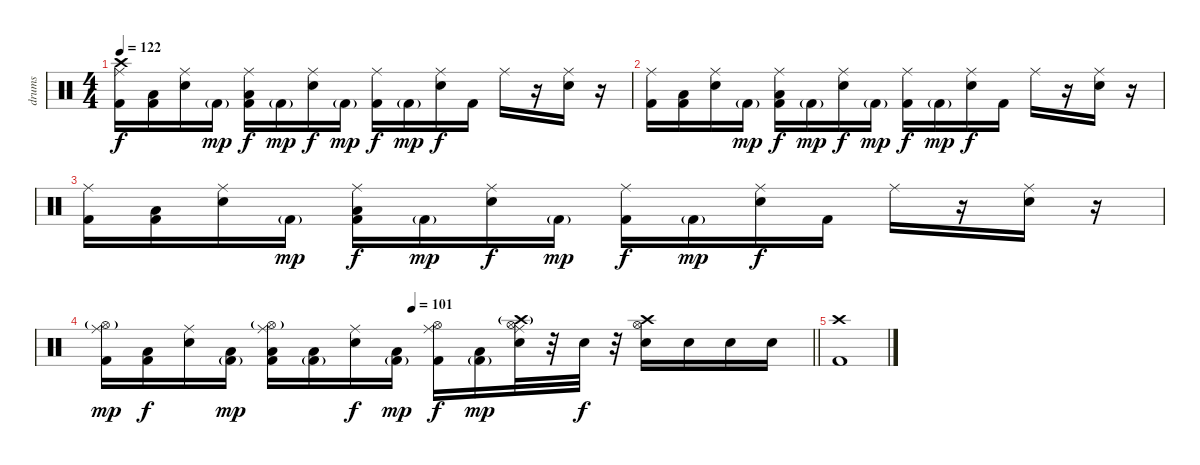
\track ("drums" "drums") {instrument percussion}
\staff {score}
\articulation defaults
\ts (4 4)
\tempo 122
\clef neutral
\ks c
("Crash high (hit)" "Kick (hit) 2" "Ride (middle)").16{dy f} ("Low Floor Tom (hit)" "Kick (hit) 2").16 ("Snare (hit) 2" "Ride (middle)").16 "Kick (hit) 2"{g}.16{bd 60 dy mp} ("Kick (hit) 2" "Low Floor Tom (hit)" "Ride (middle)").16{dy f} "Kick (hit) 2"{g}.16{bd 60 dy mp} ("Snare (hit) 2" "Ride (middle)").16{dy f} "Kick (hit) 2"{g}.16{bu 60 dy mp} ("Kick (hit) 2" "Ride (middle)").16{dy f} "Kick (hit) 2"{g}.16{bd 60 dy mp} ("Snare (hit) 2" "Ride (middle)").16{dy f} "Kick (hit) 2".16 "Ride (middle)".16{bd 60} r.16 ("Snare (hit) 2" "Ride (middle)").16{bd 60} r.16 |
("Kick (hit) 2" "Ride (middle)").16 ("Low Floor Tom (hit)" "Kick (hit) 2").16 ("Snare (hit) 2" "Ride (middle)").16 "Kick (hit) 2"{g}.16{bd 60 dy mp} ("Kick (hit) 2" "Low Floor Tom (hit)" "Ride (middle)").16{dy f} "Kick (hit) 2"{g}.16{bd 60 dy mp} ("Snare (hit) 2" "Ride (middle)").16{dy f} "Kick (hit) 2"{g}.16{bu 60 dy mp} ("Kick (hit) 2" "Ride (middle)").16{dy f} "Kick (hit) 2"{g}.16{bd 60 dy mp} ("Snare (hit) 2" "Ride (middle)").16{dy f} "Kick (hit) 2".16 "Ride (middle)".16{bd 60} r.16 ("Snare (hit) 2" "Ride (middle)").16{bd 60} r.16 |
("Kick (hit) 2" "Ride (middle)").16 ("Low Floor Tom (hit)" "Kick (hit) 2").16 ("Snare (hit) 2" "Ride (middle)").16 "Kick (hit) 2"{g}.16{bd 60 dy mp} ("Kick (hit) 2" "Low Floor Tom (hit)" "Ride (middle)").16{dy f} "Kick (hit) 2"{g}.16{bd 60 dy mp} ("Snare (hit) 2" "Ride (middle)").16{dy f} "Kick (hit) 2"{g}.16{bu 60 dy mp} ("Kick (hit) 2" "Ride (middle)").16{dy f} "Kick (hit) 2"{g}.16{bd 60 dy mp} ("Snare (hit) 2" "Ride (middle)").16{dy f} "Kick (hit) 2".16 "Ride (middle)".16{bd 60} r.16 ("Snare (hit) 2" "Ride (middle)").16{bd 60} r.16 |
\tempo (101 0.4375)
\barLineRight lightlight
("Hi-Hat (open)"{g} "Kick (hit) 2" "Ride (middle)").16{dy mp} ("Low Floor Tom (hit)" "Kick (hit) 2").16{dy f} ("Snare (hit) 2" "Ride (middle)").16 ("Low Floor Tom (hit)" "Kick (hit) 2"{g}).16{bd 60 dy mp} ("Hi-Hat (open)"{g} "Kick (hit) 2" "Low Floor Tom (hit)" "Ride (middle)").16 ("Low Floor Tom (hit)" "Kick (hit) 2"{g}).16{bd 60} ("Snare (hit) 2" "Ride (middle)").16{dy f} ("Low Floor Tom (hit)" "Kick (hit) 2"{g}).16{bu 60 dy mp} ("Hi-Hat (open)" "Kick (hit) 2" "Ride (middle)").16{dy f} ("Low Floor Tom (hit)" "Kick (hit) 2"{g}).16{bd 60 dy mp} ("Hi-Hat (open)" "Snare (hit) 2" "Crash high (hit)"{g} "Ride (middle)").32 r.32 "Snare (hit) 2".32{dy f} r.32 ("Hi-Hat (open)" "Snare (hit) 2" "Crash high (hit)").16 "Snare (hit) 2".16 "Snare (hit) 2".16 "Snare (hit) 2".16 |
("Crash high (hit)" "Kick (hit) 2").1
